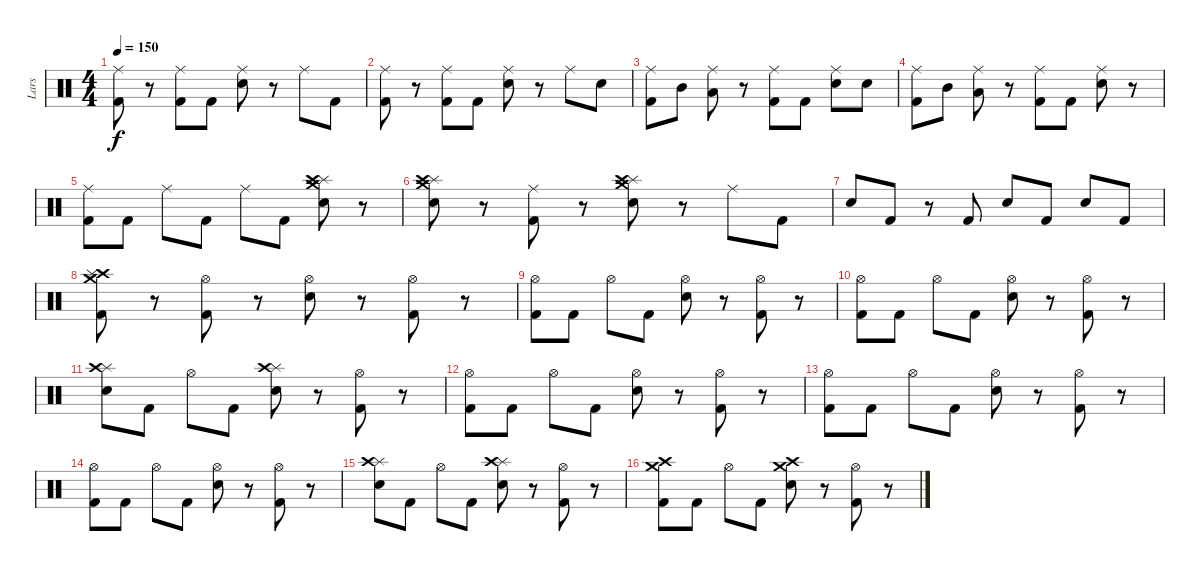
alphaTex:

\track ("Lars" "Lars") {instrument percussion}
\staff {score}
\articulation defaults
\ts (4 4)
\tempo 150
\clef neutral
\ks c
("Ride (middle)" "Kick (hit) 2").8{dy f} r.8 ("Ride (middle)" "Kick (hit) 2").8 "Kick (hit) 2".8 ("Ride (middle)" "Snare (hit) 2").8 r.8 "Ride (middle)".8 "Kick (hit) 2".8 |
("Ride (middle)" "Kick (hit) 2").8 r.8 ("Ride (middle)" "Kick (hit) 2").8 "Kick (hit) 2".8 ("Ride (middle)" "Snare (hit) 2").8 r.8 "Ride (middle)".8 "Snare (hit) 2".8 |
("Ride (middle)" "Kick (hit) 2").8 "Mid Tom (hit)".8 ("Ride (middle)" "Low Tom (hit)").8 r.8 ("Ride (middle)" "Kick (hit) 2").8 "Kick (hit) 2".8 ("Ride (middle)" "Snare (hit) 2").8 "Snare (hit) 2".8 |
("Ride (middle)" "Kick (hit) 2").8 "Mid Tom (hit)".8 ("Ride (middle)" "Low Tom (hit)").8 r.8 ("Ride (middle)" "Kick (hit) 2").8 "Kick (hit) 2".8 ("Ride (middle)" "Snare (hit) 2").8 r.8 |
("Ride (middle)" "Kick (hit) 2").8 "Kick (hit) 2".8 "Ride (middle)".8 "Kick (hit) 2".8 "Ride (middle)".8 "Kick (hit) 2".8 ("Crash medium (hit)" "Splash (hit)" "Crash high (hit)" "Snare (hit) 2").8 r.8 |
("Splash (hit)" "Crash medium (hit)" "Crash high (hit)" "Snare (hit) 2").8 r.8 ("Ride (middle)" "Kick (hit) 2").8 r.8 ("Crash medium (hit)" "Splash (hit)" "Crash high (hit)" "Snare (hit) 2").8 r.8 "Ride (middle)".8 "Kick (hit) 2".8 |
"Snare (hit) 2".8 "Kick (hit) 2".8 r.8 "Kick (hit) 2".8 "Snare (hit) 2".8 "Kick (hit) 2".8 "Snare (hit) 2".8 "Kick (hit) 2".8 |
("Crash high (hit)" "Splash (hit)" "Crash medium (hit)" "Kick (hit) 2").8 r.8 ("Kick (hit) 2" "Hi-Hat (open)").8 r.8 ("Hi-Hat (open)" "Snare (hit) 2").8 r.8 ("Kick (hit) 2" "Hi-Hat (open)").8 r.8 |
("Hi-Hat (open)" "Kick (hit) 2").8 "Kick (hit) 2".8 "Hi-Hat (open)".8 "Kick (hit) 2".8 ("Hi-Hat (open)" "Snare (hit) 2").8 r.8 ("Kick (hit) 2" "Hi-Hat (open)").8 r.8 |
("Hi-Hat (open)" "Kick (hit) 2").8 "Kick (hit) 2".8 "Hi-Hat (open)".8 "Kick (hit) 2".8 ("Hi-Hat (open)" "Snare (hit) 2").8 r.8 ("Kick (hit) 2" "Hi-Hat (open)").8 r.8 |
("Splash (hit)" "Crash high (hit)" "Snare (hit) 2").8 "Kick (hit) 2".8 "Hi-Hat (open)".8 "Kick (hit) 2".8 ("Splash (hit)" "Crash high (hit)" "Snare (hit) 2").8 r.8 ("Hi-Hat (open)" "Kick (hit) 2").8 r.8 |
("Hi-Hat (open)" "Kick (hit) 2").8 "Kick (hit) 2".8 "Hi-Hat (open)".8 "Kick (hit) 2".8 ("Hi-Hat (open)" "Snare (hit) 2").8 r.8 ("Kick (hit) 2" "Hi-Hat (open)").8 r.8 |
("Hi-Hat (open)" "Kick (hit) 2").8 "Kick (hit) 2".8 "Hi-Hat (open)".8 "Kick (hit) 2".8 ("Hi-Hat (open)" "Snare (hit) 2").8 r.8 ("Kick (hit) 2" "Hi-Hat (open)").8 r.8 |
("Hi-Hat (open)" "Kick (hit) 2").8 "Kick (hit) 2".8 "Hi-Hat (open)".8 "Kick (hit) 2".8 ("Hi-Hat (open)" "Snare (hit) 2").8 r.8 ("Kick (hit) 2" "Hi-Hat (open)").8 r.8 |
("Splash (hit)" "Crash high (hit)" "Snare (hit) 2").8 "Kick (hit) 2".8 "Hi-Hat (open)".8 "Kick (hit) 2".8 ("Splash (hit)" "Crash high (hit)" "Snare (hit) 2").8 r.8 ("Hi-Hat (open)" "Kick (hit) 2").8 r.8 |
("Crash medium (hit)" "Crash high (hit)" "Kick (hit) 2").8 "Kick (hit) 2".8 "Hi-Hat (open)".8 "Kick (hit) 2".8 ("Crash medium (hit)" "Crash high (hit)" "Snare (hit) 2").8 r.8 ("Kick (hit) 2" "Hi-Hat (open)").8 r.8
